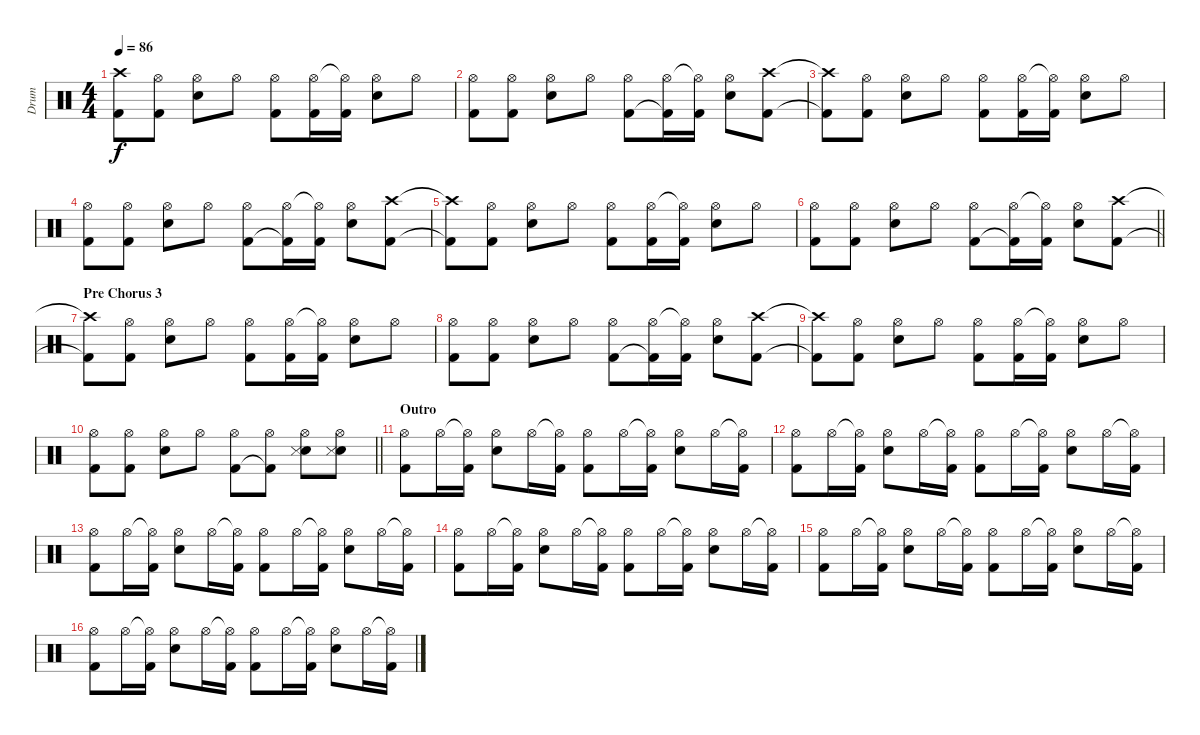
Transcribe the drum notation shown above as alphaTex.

\track ("Drum" "Drum") {instrument percussion}
\staff {score}
\articulation defaults
\ts (4 4)
\tempo 86
\clef neutral
\ks c
("Crash high (hit)"{t} "Kick (hit) 2"{t}).8{dy f} ("Hi-Hat (open)" "Kick (hit) 2").8 ("Hi-Hat (open)" "Snare (hit) 2").8 "Hi-Hat (open)".8 ("Hi-Hat (open)" "Kick (hit) 2").8 ("Hi-Hat (open)" "Kick (hit) 2").16 ("Hi-Hat (open)"{t} "Kick (hit) 2").16 ("Hi-Hat (open)" "Snare (hit) 2").8 "Hi-Hat (open)".8 |
("Hi-Hat (open)" "Kick (hit) 2").8 ("Hi-Hat (open)" "Kick (hit) 2").8 ("Hi-Hat (open)" "Snare (hit) 2").8 "Hi-Hat (open)".8 ("Hi-Hat (open)" "Kick (hit) 2").8 ("Hi-Hat (open)" "Kick (hit) 2"{t}).16 ("Hi-Hat (open)"{t} "Kick (hit) 2").16 ("Hi-Hat (open)" "Snare (hit) 2").8 ("Crash high (hit)" "Kick (hit) 2").8 |
("Crash high (hit)"{t} "Kick (hit) 2"{t}).8 ("Hi-Hat (open)" "Kick (hit) 2").8 ("Hi-Hat (open)" "Snare (hit) 2").8 "Hi-Hat (open)".8 ("Hi-Hat (open)" "Kick (hit) 2").8 ("Hi-Hat (open)" "Kick (hit) 2").16 ("Hi-Hat (open)"{t} "Kick (hit) 2").16 ("Hi-Hat (open)" "Snare (hit) 2").8 "Hi-Hat (open)".8 |
("Hi-Hat (open)" "Kick (hit) 2").8 ("Hi-Hat (open)" "Kick (hit) 2").8 ("Hi-Hat (open)" "Snare (hit) 2").8 "Hi-Hat (open)".8 ("Hi-Hat (open)" "Kick (hit) 2").8 ("Hi-Hat (open)" "Kick (hit) 2"{t}).16 ("Hi-Hat (open)"{t} "Kick (hit) 2").16 ("Hi-Hat (open)" "Snare (hit) 2").8 ("Crash high (hit)" "Kick (hit) 2").8 |
("Crash high (hit)"{t} "Kick (hit) 2"{t}).8 ("Hi-Hat (open)" "Kick (hit) 2").8 ("Hi-Hat (open)" "Snare (hit) 2").8 "Hi-Hat (open)".8 ("Hi-Hat (open)" "Kick (hit) 2").8 ("Hi-Hat (open)" "Kick (hit) 2").16 ("Hi-Hat (open)"{t} "Kick (hit) 2").16 ("Hi-Hat (open)" "Snare (hit) 2").8 "Hi-Hat (open)".8 |
\barLineRight lightlight
("Hi-Hat (open)" "Kick (hit) 2").8 ("Hi-Hat (open)" "Kick (hit) 2").8 ("Hi-Hat (open)" "Snare (hit) 2").8 "Hi-Hat (open)".8 ("Hi-Hat (open)" "Kick (hit) 2").8 ("Hi-Hat (open)" "Kick (hit) 2"{t}).16 ("Hi-Hat (open)"{t} "Kick (hit) 2").16 ("Hi-Hat (open)" "Snare (hit) 2").8 ("Crash high (hit)" "Kick (hit) 2").8 |
\section ("" "Pre Chorus 3")
("Crash high (hit)"{t} "Kick (hit) 2"{t}).8 ("Hi-Hat (open)" "Kick (hit) 2").8 ("Hi-Hat (open)" "Snare (hit) 2").8 "Hi-Hat (open)".8 ("Hi-Hat (open)" "Kick (hit) 2").8 ("Hi-Hat (open)" "Kick (hit) 2").16 ("Hi-Hat (open)"{t} "Kick (hit) 2").16 ("Hi-Hat (open)" "Snare (hit) 2").8 "Hi-Hat (open)".8 |
("Hi-Hat (open)" "Kick (hit) 2").8 ("Hi-Hat (open)" "Kick (hit) 2").8 ("Hi-Hat (open)" "Snare (hit) 2").8 "Hi-Hat (open)".8 ("Hi-Hat (open)" "Kick (hit) 2").8 ("Hi-Hat (open)" "Kick (hit) 2"{t}).16 ("Hi-Hat (open)"{t} "Kick (hit) 2").16 ("Hi-Hat (open)" "Snare (hit) 2").8 ("Crash high (hit)" "Kick (hit) 2").8 |
("Crash high (hit)"{t} "Kick (hit) 2"{t}).8 ("Hi-Hat (open)" "Kick (hit) 2").8 ("Hi-Hat (open)" "Snare (hit) 2").8 "Hi-Hat (open)".8 ("Hi-Hat (open)" "Kick (hit) 2").8 ("Hi-Hat (open)" "Kick (hit) 2").16 ("Hi-Hat (open)"{t} "Kick (hit) 2").16 ("Hi-Hat (open)" "Snare (hit) 2").8 "Hi-Hat (open)".8 |
\barLineRight lightlight
("Hi-Hat (open)" "Kick (hit) 2").8 ("Hi-Hat (open)" "Kick (hit) 2").8 ("Hi-Hat (open)" "Snare (hit) 2").8 "Hi-Hat (open)".8 ("Hi-Hat (open)" "Kick (hit) 2").8 ("Hi-Hat (open)" "Kick (hit) 2"{t}).8 ("Hi-Hat (open)" "Snare (hit) 2" "Snare (side stick) 3").8 ("Hi-Hat (open)" "Snare (hit) 2" "Snare (side stick) 3").8 |
\section ("" "Outro")
("Hi-Hat (open)" "Kick (hit) 2").8 "Hi-Hat (open)".16 ("Hi-Hat (open)"{t} "Kick (hit) 2").16 ("Hi-Hat (open)" "Snare (hit) 2").8 "Hi-Hat (open)".16 ("Hi-Hat (open)"{t} "Kick (hit) 2").16 ("Hi-Hat (open)" "Kick (hit) 2").8 "Hi-Hat (open)".16 ("Hi-Hat (open)"{t} "Kick (hit) 2").16 ("Hi-Hat (open)" "Snare (hit) 2").8 "Hi-Hat (open)".16 ("Hi-Hat (open)"{t} "Kick (hit) 2").16 |
("Hi-Hat (open)" "Kick (hit) 2").8 "Hi-Hat (open)".16 ("Hi-Hat (open)"{t} "Kick (hit) 2").16 ("Hi-Hat (open)" "Snare (hit) 2").8 "Hi-Hat (open)".16 ("Hi-Hat (open)"{t} "Kick (hit) 2").16 ("Hi-Hat (open)" "Kick (hit) 2").8 "Hi-Hat (open)".16 ("Hi-Hat (open)"{t} "Kick (hit) 2").16 ("Hi-Hat (open)" "Snare (hit) 2").8 "Hi-Hat (open)".16 ("Hi-Hat (open)"{t} "Kick (hit) 2").16 |
("Hi-Hat (open)" "Kick (hit) 2").8 "Hi-Hat (open)".16 ("Hi-Hat (open)"{t} "Kick (hit) 2").16 ("Hi-Hat (open)" "Snare (hit) 2").8 "Hi-Hat (open)".16 ("Hi-Hat (open)"{t} "Kick (hit) 2").16 ("Hi-Hat (open)" "Kick (hit) 2").8 "Hi-Hat (open)".16 ("Hi-Hat (open)"{t} "Kick (hit) 2").16 ("Hi-Hat (open)" "Snare (hit) 2").8 "Hi-Hat (open)".16 ("Hi-Hat (open)"{t} "Kick (hit) 2").16 |
("Hi-Hat (open)" "Kick (hit) 2").8 "Hi-Hat (open)".16 ("Hi-Hat (open)"{t} "Kick (hit) 2").16 ("Hi-Hat (open)" "Snare (hit) 2").8 "Hi-Hat (open)".16 ("Hi-Hat (open)"{t} "Kick (hit) 2").16 ("Hi-Hat (open)" "Kick (hit) 2").8 "Hi-Hat (open)".16 ("Hi-Hat (open)"{t} "Kick (hit) 2").16 ("Hi-Hat (open)" "Snare (hit) 2").8 "Hi-Hat (open)".16 ("Hi-Hat (open)"{t} "Kick (hit) 2").16 |
("Hi-Hat (open)" "Kick (hit) 2").8 "Hi-Hat (open)".16 ("Hi-Hat (open)"{t} "Kick (hit) 2").16 ("Hi-Hat (open)" "Snare (hit) 2").8 "Hi-Hat (open)".16 ("Hi-Hat (open)"{t} "Kick (hit) 2").16 ("Hi-Hat (open)" "Kick (hit) 2").8 "Hi-Hat (open)".16 ("Hi-Hat (open)"{t} "Kick (hit) 2").16 ("Hi-Hat (open)" "Snare (hit) 2").8 "Hi-Hat (open)".16 ("Hi-Hat (open)"{t} "Kick (hit) 2").16 |
("Hi-Hat (open)" "Kick (hit) 2").8 "Hi-Hat (open)".16 ("Hi-Hat (open)"{t} "Kick (hit) 2").16 ("Hi-Hat (open)" "Snare (hit) 2").8 "Hi-Hat (open)".16 ("Hi-Hat (open)"{t} "Kick (hit) 2").16 ("Hi-Hat (open)" "Kick (hit) 2").8 "Hi-Hat (open)".16 ("Hi-Hat (open)"{t} "Kick (hit) 2").16 ("Hi-Hat (open)" "Snare (hit) 2").8 "Hi-Hat (open)".16 ("Hi-Hat (open)"{t} "Kick (hit) 2").16
